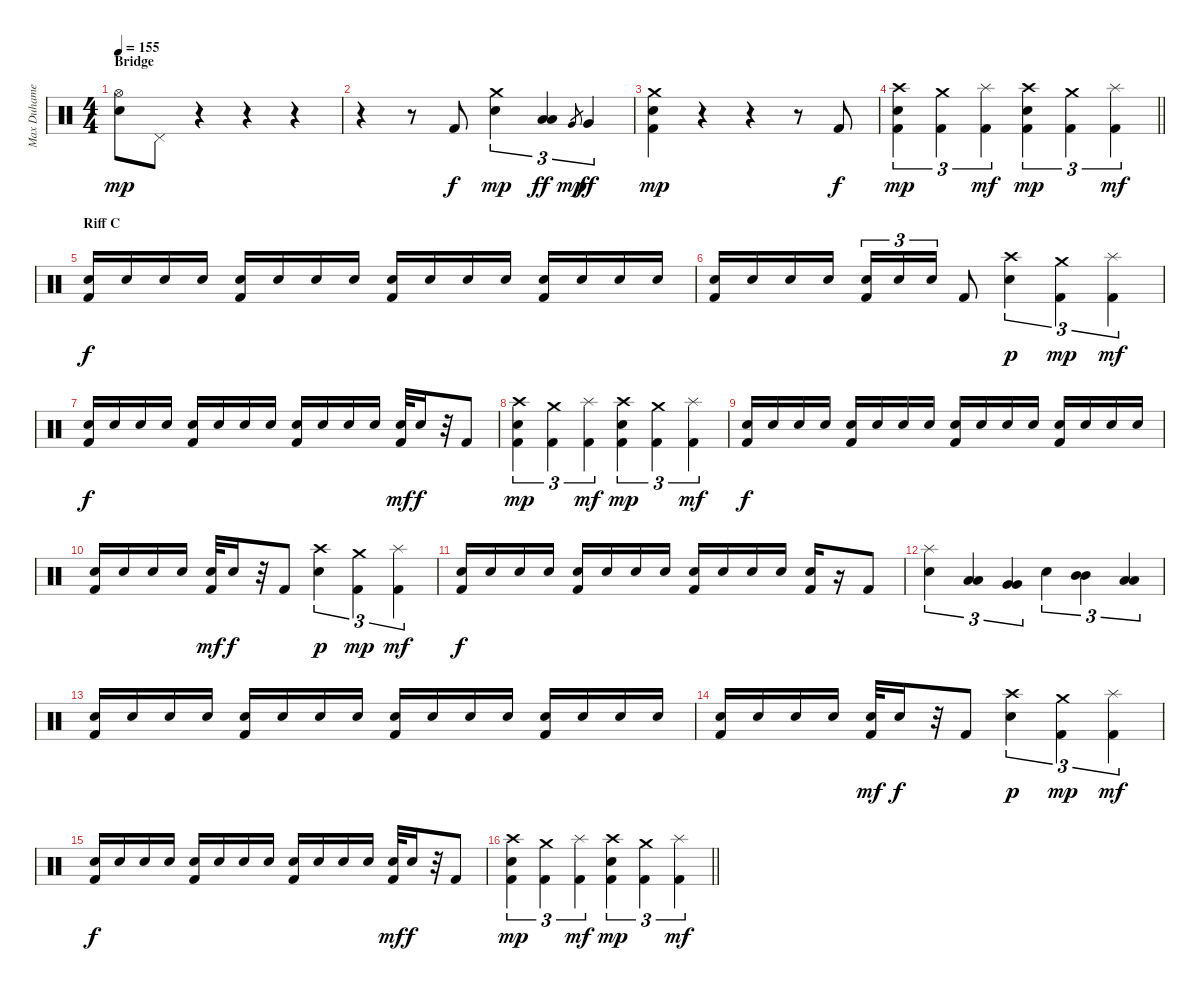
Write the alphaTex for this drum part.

\track ("Max Duhamel" "Max Duhame") {instrument percussion}
\staff {score}
\articulation defaults
\ts (4 4)
\section ("" "Bridge")
\tempo 155
\clef neutral
\ks c
("Hi-Hat (open)" "Electric Snare (hit)").8{dy mp} "Pedal Hi-Hat (hit)".8 r.4 r.4 r.4 |
r.4 r.8 "Kick (hit) 2".8{dy f} ("Crash medium (hit)" "Electric Snare (hit)").4{tu (3 2) dy mp} ("Low Tom (hit)" "Low Tom (hit)").4{tu (3 2) dy ff} "Very Low Tom (hit)".8{gr dy mp} "Very Low Tom (hit)".4{tu (3 2) dy ff} |
("Crash medium (hit)" "Electric Snare (hit)" "Kick (hit) 2").4{dy mp} r.4 r.4 r.8 "Kick (hit) 2".8{dy f} |
\barLineRight lightlight
("Crash high (hit)" "Electric Snare (hit)" "Kick (hit) 2").4{tu (3 2) dy mp} ("Crash medium (hit)" "Kick (hit) 2").4{tu (3 2)} ("Splash (hit)" "Kick (hit) 2").4{tu (3 2) dy mf} ("Crash high (hit)" "Electric Snare (hit)" "Kick (hit) 2").4{tu (3 2) dy mp} ("Crash medium (hit)" "Kick (hit) 2").4{tu (3 2)} ("Splash (hit)" "Kick (hit) 2").4{tu (3 2) dy mf} |
\section ("" "Riff C")
("Electric Snare (hit)" "Kick (hit) 2").16{dy f} "Electric Snare (hit)".16 "Electric Snare (hit)".16 "Electric Snare (hit)".16 ("Electric Snare (hit)" "Kick (hit) 2").16 "Electric Snare (hit)".16 "Electric Snare (hit)".16 "Electric Snare (hit)".16 ("Electric Snare (hit)" "Kick (hit) 2").16 "Electric Snare (hit)".16 "Electric Snare (hit)".16 "Electric Snare (hit)".16 ("Electric Snare (hit)" "Kick (hit) 2").16 "Electric Snare (hit)".16 "Electric Snare (hit)".16 "Electric Snare (hit)".16 |
("Electric Snare (hit)" "Kick (hit) 2").16 "Electric Snare (hit)".16 "Electric Snare (hit)".16 "Electric Snare (hit)".16 ("Electric Snare (hit)" "Kick (hit) 2").16{tu (3 2)} "Electric Snare (hit)".16{tu (3 2)} "Electric Snare (hit)".16{tu (3 2)} "Kick (hit) 2".8 ("Crash high (hit)" "Electric Snare (hit)").4{tu (3 2) dy p} ("Crash medium (hit)" "Kick (hit) 2").4{tu (3 2) dy mp} ("Splash (hit)" "Kick (hit) 2").4{tu (3 2) dy mf} |
("Electric Snare (hit)" "Kick (hit) 2").16{dy f} "Electric Snare (hit)".16 "Electric Snare (hit)".16 "Electric Snare (hit)".16 ("Electric Snare (hit)" "Kick (hit) 2").16 "Electric Snare (hit)".16 "Electric Snare (hit)".16 "Electric Snare (hit)".16 ("Electric Snare (hit)" "Kick (hit) 2").16 "Electric Snare (hit)".16 "Electric Snare (hit)".16 "Electric Snare (hit)".16 ("Electric Snare (hit)" "Kick (hit) 2").32{dy mf} "Electric Snare (hit)".16{dy f} r.32 "Kick (hit) 2".8 |
("Crash high (hit)" "Electric Snare (hit)" "Kick (hit) 2").4{tu (3 2) dy mp} ("Crash medium (hit)" "Kick (hit) 2").4{tu (3 2)} ("Splash (hit)" "Kick (hit) 2").4{tu (3 2) dy mf} ("Crash high (hit)" "Electric Snare (hit)" "Kick (hit) 2").4{tu (3 2) dy mp} ("Crash medium (hit)" "Kick (hit) 2").4{tu (3 2)} ("Splash (hit)" "Kick (hit) 2").4{tu (3 2) dy mf} |
("Electric Snare (hit)" "Kick (hit) 2").16{dy f} "Electric Snare (hit)".16 "Electric Snare (hit)".16 "Electric Snare (hit)".16 ("Electric Snare (hit)" "Kick (hit) 2").16 "Electric Snare (hit)".16 "Electric Snare (hit)".16 "Electric Snare (hit)".16 ("Electric Snare (hit)" "Kick (hit) 2").16 "Electric Snare (hit)".16 "Electric Snare (hit)".16 "Electric Snare (hit)".16 ("Electric Snare (hit)" "Kick (hit) 2").16 "Electric Snare (hit)".16 "Electric Snare (hit)".16 "Electric Snare (hit)".16 |
("Electric Snare (hit)" "Kick (hit) 2").16 "Electric Snare (hit)".16 "Electric Snare (hit)".16 "Electric Snare (hit)".16 ("Electric Snare (hit)" "Kick (hit) 2").32{dy mf} "Electric Snare (hit)".16{dy f} r.32 "Kick (hit) 2".8 ("Crash high (hit)" "Electric Snare (hit)").4{tu (3 2) dy p} ("Crash medium (hit)" "Kick (hit) 2").4{tu (3 2) dy mp} ("Splash (hit)" "Kick (hit) 2").4{tu (3 2) dy mf} |
("Electric Snare (hit)" "Kick (hit) 2").16{dy f} "Electric Snare (hit)".16 "Electric Snare (hit)".16 "Electric Snare (hit)".16 ("Electric Snare (hit)" "Kick (hit) 2").16 "Electric Snare (hit)".16 "Electric Snare (hit)".16 "Electric Snare (hit)".16 ("Electric Snare (hit)" "Kick (hit) 2").16 "Electric Snare (hit)".16 "Electric Snare (hit)".16 "Electric Snare (hit)".16 ("Electric Snare (hit)" "Kick (hit) 2").16 r.16 "Kick (hit) 2".8 |
("Splash (hit)" "Electric Snare (hit)").4{tu (3 2)} ("Low Tom (hit)" "Low Tom (hit)").4{tu (3 2)} ("Very Low Tom (hit)" "Very Low Tom (hit)").4{tu (3 2)} "Electric Snare (hit)".4{tu (3 2)} ("Mid Tom (hit)" "Mid Tom (hit)").4{tu (3 2)} ("Low Tom (hit)" "Low Tom (hit)").4{tu (3 2)} |
("Electric Snare (hit)" "Kick (hit) 2").16 "Electric Snare (hit)".16 "Electric Snare (hit)".16 "Electric Snare (hit)".16 ("Electric Snare (hit)" "Kick (hit) 2").16 "Electric Snare (hit)".16 "Electric Snare (hit)".16 "Electric Snare (hit)".16 ("Electric Snare (hit)" "Kick (hit) 2").16 "Electric Snare (hit)".16 "Electric Snare (hit)".16 "Electric Snare (hit)".16 ("Electric Snare (hit)" "Kick (hit) 2").16 "Electric Snare (hit)".16 "Electric Snare (hit)".16 "Electric Snare (hit)".16 |
("Electric Snare (hit)" "Kick (hit) 2").16 "Electric Snare (hit)".16 "Electric Snare (hit)".16 "Electric Snare (hit)".16 ("Electric Snare (hit)" "Kick (hit) 2").32{dy mf} "Electric Snare (hit)".16{dy f} r.32 "Kick (hit) 2".8 ("Crash high (hit)" "Electric Snare (hit)").4{tu (3 2) dy p} ("Crash medium (hit)" "Kick (hit) 2").4{tu (3 2) dy mp} ("Splash (hit)" "Kick (hit) 2").4{tu (3 2) dy mf} |
("Electric Snare (hit)" "Kick (hit) 2").16{dy f} "Electric Snare (hit)".16 "Electric Snare (hit)".16 "Electric Snare (hit)".16 ("Electric Snare (hit)" "Kick (hit) 2").16 "Electric Snare (hit)".16 "Electric Snare (hit)".16 "Electric Snare (hit)".16 ("Electric Snare (hit)" "Kick (hit) 2").16 "Electric Snare (hit)".16 "Electric Snare (hit)".16 "Electric Snare (hit)".16 ("Electric Snare (hit)" "Kick (hit) 2").32{dy mf} "Electric Snare (hit)".16{dy f} r.32 "Kick (hit) 2".8 |
\barLineRight lightlight
("Crash high (hit)" "Electric Snare (hit)" "Kick (hit) 2").4{tu (3 2) dy mp} ("Crash medium (hit)" "Kick (hit) 2").4{tu (3 2)} ("Splash (hit)" "Kick (hit) 2").4{tu (3 2) dy mf} ("Crash high (hit)" "Electric Snare (hit)" "Kick (hit) 2").4{tu (3 2) dy mp} ("Crash medium (hit)" "Kick (hit) 2").4{tu (3 2)} ("Splash (hit)" "Kick (hit) 2").4{tu (3 2) dy mf}
